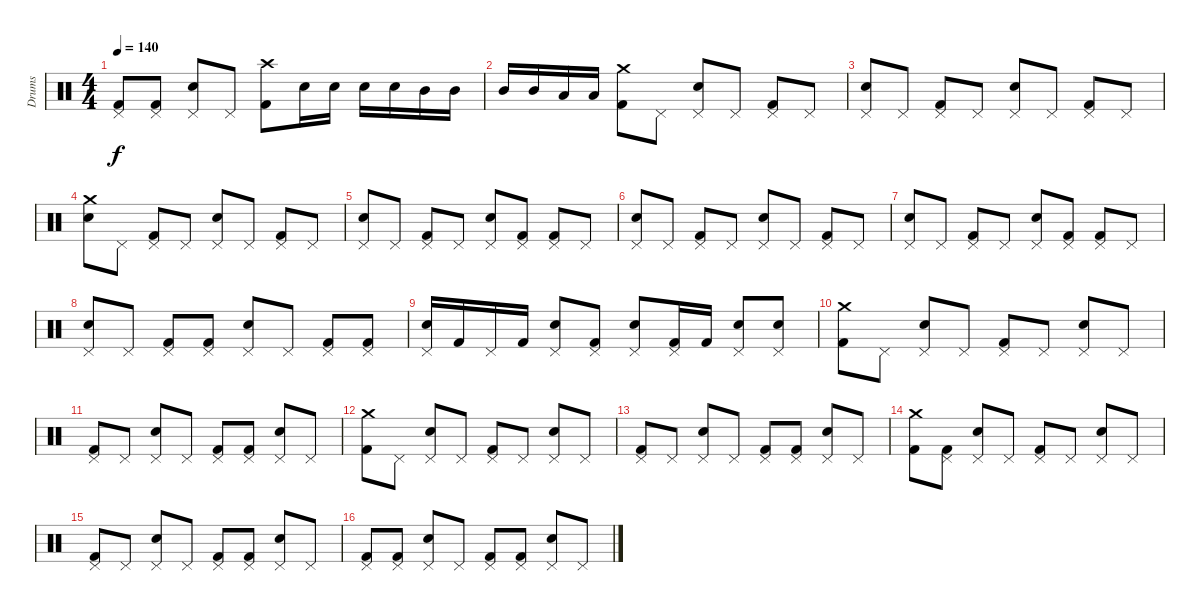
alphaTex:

\track ("Drums" "Drums") {instrument percussion}
\staff {score}
\articulation defaults
\ts (4 4)
\tempo 140
\clef neutral
\ks c
("Pedal Hi-Hat (hit)" "Kick (hit) 2").8{dy f} ("Pedal Hi-Hat (hit)" "Kick (hit) 2").8 ("Pedal Hi-Hat (hit)" "Electric Snare (hit)").8 "Pedal Hi-Hat (hit)".8 ("Crash high (hit)" "Kick (hit) 2").8 "Electric Snare (hit)".16 "Electric Snare (hit)".16 "Electric Snare (hit)".16 "Electric Snare (hit)".16 "Mid Tom (hit)".16 "Mid Tom (hit)".16 |
"Mid Tom (hit)".16 "Mid Tom (hit)".16 "Low Tom (hit)".16 "Low Tom (hit)".16 ("Crash medium (hit)" "Kick (hit) 2").8 "Pedal Hi-Hat (hit)".8 ("Pedal Hi-Hat (hit)" "Electric Snare (hit)").8 "Pedal Hi-Hat (hit)".8 ("Pedal Hi-Hat (hit)" "Kick (hit) 2").8 "Pedal Hi-Hat (hit)".8 |
("Pedal Hi-Hat (hit)" "Electric Snare (hit)").8 "Pedal Hi-Hat (hit)".8 ("Pedal Hi-Hat (hit)" "Kick (hit) 2").8 "Pedal Hi-Hat (hit)".8 ("Pedal Hi-Hat (hit)" "Electric Snare (hit)").8 "Pedal Hi-Hat (hit)".8 ("Pedal Hi-Hat (hit)" "Kick (hit) 2").8 "Pedal Hi-Hat (hit)".8 |
("Crash medium (hit)" "Electric Snare (hit)").8 "Pedal Hi-Hat (hit)".8 ("Pedal Hi-Hat (hit)" "Kick (hit) 2").8 "Pedal Hi-Hat (hit)".8 ("Pedal Hi-Hat (hit)" "Electric Snare (hit)").8 "Pedal Hi-Hat (hit)".8 ("Pedal Hi-Hat (hit)" "Kick (hit) 2").8 "Pedal Hi-Hat (hit)".8 |
("Pedal Hi-Hat (hit)" "Electric Snare (hit)").8 "Pedal Hi-Hat (hit)".8 ("Pedal Hi-Hat (hit)" "Kick (hit) 2").8 "Pedal Hi-Hat (hit)".8 ("Pedal Hi-Hat (hit)" "Electric Snare (hit)").8 ("Pedal Hi-Hat (hit)" "Kick (hit) 2").8 ("Pedal Hi-Hat (hit)" "Kick (hit) 2").8 "Pedal Hi-Hat (hit)".8 |
("Pedal Hi-Hat (hit)" "Electric Snare (hit)").8 "Pedal Hi-Hat (hit)".8 ("Pedal Hi-Hat (hit)" "Kick (hit) 2").8 "Pedal Hi-Hat (hit)".8 ("Pedal Hi-Hat (hit)" "Electric Snare (hit)").8 "Pedal Hi-Hat (hit)".8 ("Pedal Hi-Hat (hit)" "Kick (hit) 2").8 "Pedal Hi-Hat (hit)".8 |
("Pedal Hi-Hat (hit)" "Electric Snare (hit)").8 "Pedal Hi-Hat (hit)".8 ("Pedal Hi-Hat (hit)" "Kick (hit) 2").8 "Pedal Hi-Hat (hit)".8 ("Pedal Hi-Hat (hit)" "Electric Snare (hit)").8 ("Pedal Hi-Hat (hit)" "Kick (hit) 2").8 ("Pedal Hi-Hat (hit)" "Kick (hit) 2").8 "Pedal Hi-Hat (hit)".8 |
("Pedal Hi-Hat (hit)" "Electric Snare (hit)").8 "Pedal Hi-Hat (hit)".8 ("Pedal Hi-Hat (hit)" "Kick (hit) 2").8 ("Pedal Hi-Hat (hit)" "Kick (hit) 2").8 ("Pedal Hi-Hat (hit)" "Electric Snare (hit)").8 "Pedal Hi-Hat (hit)".8 ("Pedal Hi-Hat (hit)" "Kick (hit) 2").8 ("Pedal Hi-Hat (hit)" "Kick (hit) 2").8 |
("Pedal Hi-Hat (hit)" "Electric Snare (hit)").16 "Kick (hit) 2".16 "Pedal Hi-Hat (hit)".16 "Kick (hit) 2".16 ("Pedal Hi-Hat (hit)" "Electric Snare (hit)").8 ("Pedal Hi-Hat (hit)" "Kick (hit) 2").8 ("Pedal Hi-Hat (hit)" "Electric Snare (hit)").8 ("Pedal Hi-Hat (hit)" "Kick (hit) 2").16 "Kick (hit) 2".16 ("Pedal Hi-Hat (hit)" "Electric Snare (hit)").8 ("Pedal Hi-Hat (hit)" "Electric Snare (hit)").8 |
("Crash medium (hit)" "Kick (hit) 2").8 "Pedal Hi-Hat (hit)".8 ("Pedal Hi-Hat (hit)" "Electric Snare (hit)").8 "Pedal Hi-Hat (hit)".8 ("Pedal Hi-Hat (hit)" "Kick (hit) 2").8 "Pedal Hi-Hat (hit)".8 ("Pedal Hi-Hat (hit)" "Electric Snare (hit)").8 "Pedal Hi-Hat (hit)".8 |
("Pedal Hi-Hat (hit)" "Kick (hit) 2").8 "Pedal Hi-Hat (hit)".8 ("Pedal Hi-Hat (hit)" "Electric Snare (hit)").8 "Pedal Hi-Hat (hit)".8 ("Pedal Hi-Hat (hit)" "Kick (hit) 2").8 ("Pedal Hi-Hat (hit)" "Kick (hit) 2").8 ("Pedal Hi-Hat (hit)" "Electric Snare (hit)").8 "Pedal Hi-Hat (hit)".8 |
("Crash medium (hit)" "Kick (hit) 2").8 "Pedal Hi-Hat (hit)".8 ("Pedal Hi-Hat (hit)" "Electric Snare (hit)").8 "Pedal Hi-Hat (hit)".8 ("Pedal Hi-Hat (hit)" "Kick (hit) 2").8 "Pedal Hi-Hat (hit)".8 ("Pedal Hi-Hat (hit)" "Electric Snare (hit)").8 "Pedal Hi-Hat (hit)".8 |
("Pedal Hi-Hat (hit)" "Kick (hit) 2").8 "Pedal Hi-Hat (hit)".8 ("Pedal Hi-Hat (hit)" "Electric Snare (hit)").8 "Pedal Hi-Hat (hit)".8 ("Pedal Hi-Hat (hit)" "Kick (hit) 2").8 ("Pedal Hi-Hat (hit)" "Kick (hit) 2").8 ("Pedal Hi-Hat (hit)" "Electric Snare (hit)").8 "Pedal Hi-Hat (hit)".8 |
("Crash medium (hit)" "Kick (hit) 2").8 ("Pedal Hi-Hat (hit)" "Kick (hit) 2").8 ("Pedal Hi-Hat (hit)" "Electric Snare (hit)").8 "Pedal Hi-Hat (hit)".8 ("Pedal Hi-Hat (hit)" "Kick (hit) 2").8 "Pedal Hi-Hat (hit)".8 ("Pedal Hi-Hat (hit)" "Electric Snare (hit)").8 "Pedal Hi-Hat (hit)".8 |
("Pedal Hi-Hat (hit)" "Kick (hit) 2").8 "Pedal Hi-Hat (hit)".8 ("Pedal Hi-Hat (hit)" "Electric Snare (hit)").8 "Pedal Hi-Hat (hit)".8 ("Pedal Hi-Hat (hit)" "Kick (hit) 2").8 ("Pedal Hi-Hat (hit)" "Kick (hit) 2").8 ("Pedal Hi-Hat (hit)" "Electric Snare (hit)").8 "Pedal Hi-Hat (hit)".8 |
("Pedal Hi-Hat (hit)" "Kick (hit) 2").8 ("Pedal Hi-Hat (hit)" "Kick (hit) 2").8 ("Pedal Hi-Hat (hit)" "Electric Snare (hit)").8 "Pedal Hi-Hat (hit)".8 ("Pedal Hi-Hat (hit)" "Kick (hit) 2").8 ("Pedal Hi-Hat (hit)" "Kick (hit) 2").8 ("Pedal Hi-Hat (hit)" "Electric Snare (hit)").8 "Pedal Hi-Hat (hit)".8
